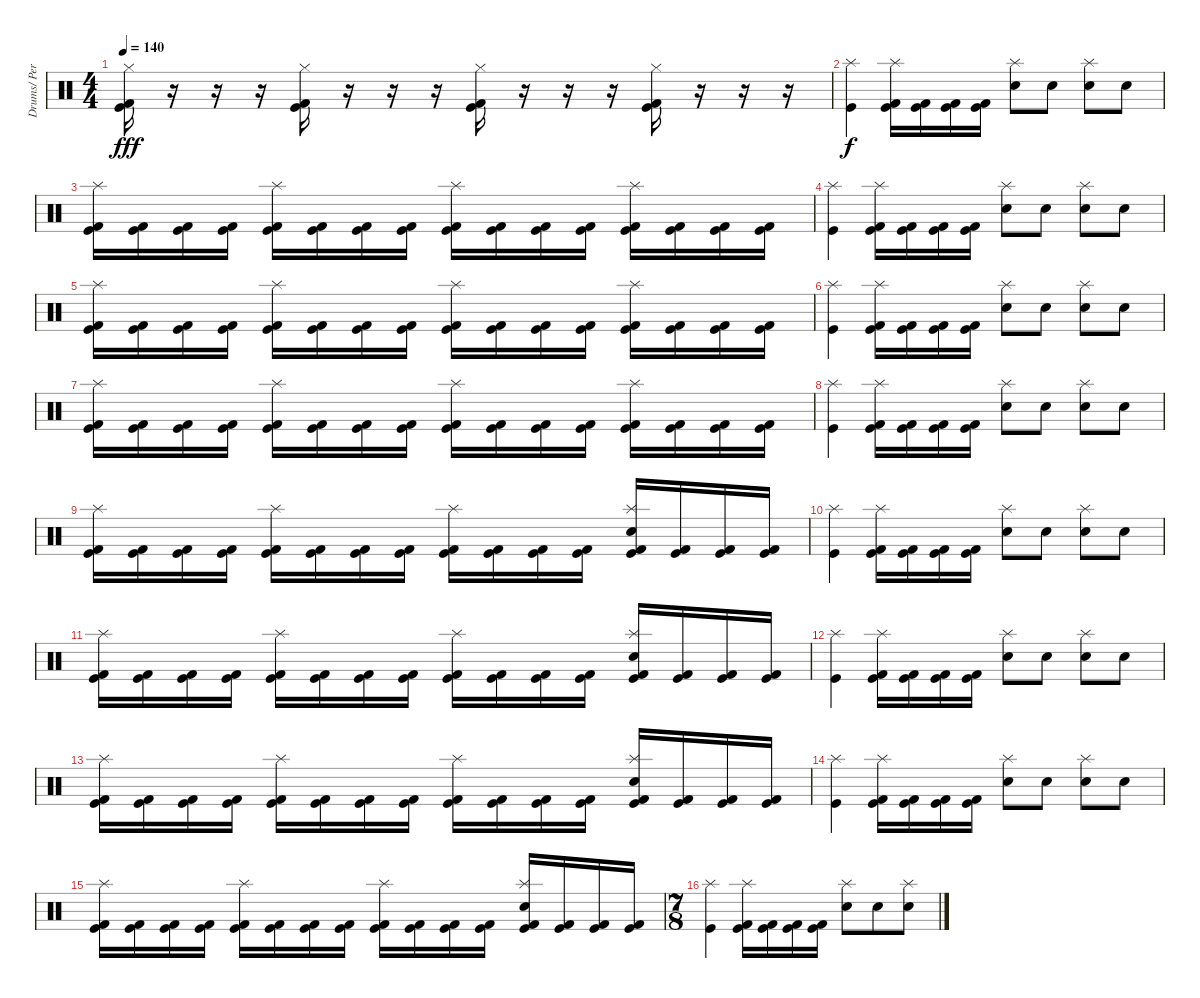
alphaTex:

\track ("Drums/ Percussion- Rob" "Drums/ Per") {instrument percussion}
\staff {score}
\articulation defaults
\ts (4 4)
\tempo 140
\clef neutral
\ks c
("Kick (hit)" "Kick (hit) 2" "Hi-Hat (closed)").16{dy fff} r.16 r.16 r.16 ("Kick (hit)" "Kick (hit) 2" "Hi-Hat (closed)").16 r.16 r.16 r.16 ("Kick (hit)" "Kick (hit) 2" "Hi-Hat (closed)").16 r.16 r.16 r.16 ("Kick (hit)" "Kick (hit) 2" "Hi-Hat (closed)").16 r.16 r.16 r.16 |
("Splash (hit)" "Kick (hit)").4{dy f} ("Splash (hit)" "Kick (hit) 2" "Kick (hit)").16 ("Kick (hit) 2" "Kick (hit)").16 ("Kick (hit) 2" "Kick (hit)").16 ("Kick (hit) 2" "Kick (hit)").16 ("Splash (hit)" "Snare (hit) 2").8 "Snare (hit) 2".8 ("Splash (hit)" "Snare (hit) 2").8 "Snare (hit) 2".8 |
("Splash (hit)" "Kick (hit)" "Kick (hit) 2").16 ("Kick (hit)" "Kick (hit) 2").16 ("Kick (hit)" "Kick (hit) 2").16 ("Kick (hit)" "Kick (hit) 2").16 ("Splash (hit)" "Kick (hit)" "Kick (hit) 2").16 ("Kick (hit)" "Kick (hit) 2").16 ("Kick (hit)" "Kick (hit) 2").16 ("Kick (hit)" "Kick (hit) 2").16 ("Splash (hit)" "Kick (hit)" "Kick (hit) 2").16 ("Kick (hit)" "Kick (hit) 2").16 ("Kick (hit)" "Kick (hit) 2").16 ("Kick (hit)" "Kick (hit) 2").16 ("Splash (hit)" "Kick (hit)" "Kick (hit) 2").16 ("Kick (hit)" "Kick (hit) 2").16 ("Kick (hit)" "Kick (hit) 2").16 ("Kick (hit)" "Kick (hit) 2").16 |
("Splash (hit)" "Kick (hit)").4 ("Splash (hit)" "Kick (hit) 2" "Kick (hit)").16 ("Kick (hit) 2" "Kick (hit)").16 ("Kick (hit) 2" "Kick (hit)").16 ("Kick (hit) 2" "Kick (hit)").16 ("Splash (hit)" "Snare (hit) 2").8 "Snare (hit) 2".8 ("Splash (hit)" "Snare (hit) 2").8 "Snare (hit) 2".8 |
("Splash (hit)" "Kick (hit)" "Kick (hit) 2").16 ("Kick (hit)" "Kick (hit) 2").16 ("Kick (hit)" "Kick (hit) 2").16 ("Kick (hit)" "Kick (hit) 2").16 ("Splash (hit)" "Kick (hit)" "Kick (hit) 2").16 ("Kick (hit)" "Kick (hit) 2").16 ("Kick (hit)" "Kick (hit) 2").16 ("Kick (hit)" "Kick (hit) 2").16 ("Splash (hit)" "Kick (hit)" "Kick (hit) 2").16 ("Kick (hit)" "Kick (hit) 2").16 ("Kick (hit)" "Kick (hit) 2").16 ("Kick (hit)" "Kick (hit) 2").16 ("Splash (hit)" "Kick (hit)" "Kick (hit) 2").16 ("Kick (hit)" "Kick (hit) 2").16 ("Kick (hit)" "Kick (hit) 2").16 ("Kick (hit)" "Kick (hit) 2").16 |
("Splash (hit)" "Kick (hit)").4 ("Splash (hit)" "Kick (hit) 2" "Kick (hit)").16 ("Kick (hit) 2" "Kick (hit)").16 ("Kick (hit) 2" "Kick (hit)").16 ("Kick (hit) 2" "Kick (hit)").16 ("Splash (hit)" "Snare (hit) 2").8 "Snare (hit) 2".8 ("Splash (hit)" "Snare (hit) 2").8 "Snare (hit) 2".8 |
("Splash (hit)" "Kick (hit)" "Kick (hit) 2").16 ("Kick (hit)" "Kick (hit) 2").16 ("Kick (hit)" "Kick (hit) 2").16 ("Kick (hit)" "Kick (hit) 2").16 ("Splash (hit)" "Kick (hit)" "Kick (hit) 2").16 ("Kick (hit)" "Kick (hit) 2").16 ("Kick (hit)" "Kick (hit) 2").16 ("Kick (hit)" "Kick (hit) 2").16 ("Splash (hit)" "Kick (hit)" "Kick (hit) 2").16 ("Kick (hit)" "Kick (hit) 2").16 ("Kick (hit)" "Kick (hit) 2").16 ("Kick (hit)" "Kick (hit) 2").16 ("Splash (hit)" "Kick (hit)" "Kick (hit) 2").16 ("Kick (hit)" "Kick (hit) 2").16 ("Kick (hit)" "Kick (hit) 2").16 ("Kick (hit)" "Kick (hit) 2").16 |
("Splash (hit)" "Kick (hit)").4 ("Splash (hit)" "Kick (hit) 2" "Kick (hit)").16 ("Kick (hit) 2" "Kick (hit)").16 ("Kick (hit) 2" "Kick (hit)").16 ("Kick (hit) 2" "Kick (hit)").16 ("Splash (hit)" "Snare (hit) 2").8 "Snare (hit) 2".8 ("Splash (hit)" "Snare (hit) 2").8 "Snare (hit) 2".8 |
("Splash (hit)" "Kick (hit)" "Kick (hit) 2").16 ("Kick (hit)" "Kick (hit) 2").16 ("Kick (hit)" "Kick (hit) 2").16 ("Kick (hit)" "Kick (hit) 2").16 ("Splash (hit)" "Kick (hit)" "Kick (hit) 2").16 ("Kick (hit)" "Kick (hit) 2").16 ("Kick (hit)" "Kick (hit) 2").16 ("Kick (hit)" "Kick (hit) 2").16 ("Splash (hit)" "Kick (hit)" "Kick (hit) 2").16 ("Kick (hit)" "Kick (hit) 2").16 ("Kick (hit)" "Kick (hit) 2").16 ("Kick (hit)" "Kick (hit) 2").16 ("Splash (hit)" "Snare (hit) 2" "Kick (hit)" "Kick (hit) 2").16 ("Kick (hit)" "Kick (hit) 2").16 ("Kick (hit)" "Kick (hit) 2").16 ("Kick (hit)" "Kick (hit) 2").16 |
("Splash (hit)" "Kick (hit)").4 ("Splash (hit)" "Kick (hit) 2" "Kick (hit)").16 ("Kick (hit) 2" "Kick (hit)").16 ("Kick (hit) 2" "Kick (hit)").16 ("Kick (hit) 2" "Kick (hit)").16 ("Splash (hit)" "Snare (hit) 2").8 "Snare (hit) 2".8 ("Splash (hit)" "Snare (hit) 2").8 "Snare (hit) 2".8 |
("Splash (hit)" "Kick (hit)" "Kick (hit) 2").16 ("Kick (hit)" "Kick (hit) 2").16 ("Kick (hit)" "Kick (hit) 2").16 ("Kick (hit)" "Kick (hit) 2").16 ("Splash (hit)" "Kick (hit)" "Kick (hit) 2").16 ("Kick (hit)" "Kick (hit) 2").16 ("Kick (hit)" "Kick (hit) 2").16 ("Kick (hit)" "Kick (hit) 2").16 ("Splash (hit)" "Kick (hit)" "Kick (hit) 2").16 ("Kick (hit)" "Kick (hit) 2").16 ("Kick (hit)" "Kick (hit) 2").16 ("Kick (hit)" "Kick (hit) 2").16 ("Splash (hit)" "Snare (hit) 2" "Kick (hit)" "Kick (hit) 2").16 ("Kick (hit)" "Kick (hit) 2").16 ("Kick (hit)" "Kick (hit) 2").16 ("Kick (hit)" "Kick (hit) 2").16 |
("Splash (hit)" "Kick (hit)").4 ("Splash (hit)" "Kick (hit) 2" "Kick (hit)").16 ("Kick (hit) 2" "Kick (hit)").16 ("Kick (hit) 2" "Kick (hit)").16 ("Kick (hit) 2" "Kick (hit)").16 ("Splash (hit)" "Snare (hit) 2").8 "Snare (hit) 2".8 ("Splash (hit)" "Snare (hit) 2").8 "Snare (hit) 2".8 |
("Splash (hit)" "Kick (hit)" "Kick (hit) 2").16 ("Kick (hit)" "Kick (hit) 2").16 ("Kick (hit)" "Kick (hit) 2").16 ("Kick (hit)" "Kick (hit) 2").16 ("Splash (hit)" "Kick (hit)" "Kick (hit) 2").16 ("Kick (hit)" "Kick (hit) 2").16 ("Kick (hit)" "Kick (hit) 2").16 ("Kick (hit)" "Kick (hit) 2").16 ("Splash (hit)" "Kick (hit)" "Kick (hit) 2").16 ("Kick (hit)" "Kick (hit) 2").16 ("Kick (hit)" "Kick (hit) 2").16 ("Kick (hit)" "Kick (hit) 2").16 ("Splash (hit)" "Snare (hit) 2" "Kick (hit)" "Kick (hit) 2").16 ("Kick (hit)" "Kick (hit) 2").16 ("Kick (hit)" "Kick (hit) 2").16 ("Kick (hit)" "Kick (hit) 2").16 |
("Splash (hit)" "Kick (hit)").4 ("Splash (hit)" "Kick (hit) 2" "Kick (hit)").16 ("Kick (hit) 2" "Kick (hit)").16 ("Kick (hit) 2" "Kick (hit)").16 ("Kick (hit) 2" "Kick (hit)").16 ("Splash (hit)" "Snare (hit) 2").8 "Snare (hit) 2".8 ("Splash (hit)" "Snare (hit) 2").8 "Snare (hit) 2".8 |
("Splash (hit)" "Kick (hit)" "Kick (hit) 2").16 ("Kick (hit)" "Kick (hit) 2").16 ("Kick (hit)" "Kick (hit) 2").16 ("Kick (hit)" "Kick (hit) 2").16 ("Splash (hit)" "Kick (hit)" "Kick (hit) 2").16 ("Kick (hit)" "Kick (hit) 2").16 ("Kick (hit)" "Kick (hit) 2").16 ("Kick (hit)" "Kick (hit) 2").16 ("Splash (hit)" "Kick (hit)" "Kick (hit) 2").16 ("Kick (hit)" "Kick (hit) 2").16 ("Kick (hit)" "Kick (hit) 2").16 ("Kick (hit)" "Kick (hit) 2").16 ("Splash (hit)" "Snare (hit) 2" "Kick (hit)" "Kick (hit) 2").16 ("Kick (hit)" "Kick (hit) 2").16 ("Kick (hit)" "Kick (hit) 2").16 ("Kick (hit)" "Kick (hit) 2").16 |
\ts (7 8)
("Splash (hit)" "Kick (hit)").4 ("Splash (hit)" "Kick (hit) 2" "Kick (hit)").16 ("Kick (hit) 2" "Kick (hit)").16 ("Kick (hit) 2" "Kick (hit)").16 ("Kick (hit) 2" "Kick (hit)").16 ("Splash (hit)" "Snare (hit) 2").8 "Snare (hit) 2".8 ("Splash (hit)" "Snare (hit) 2").8
